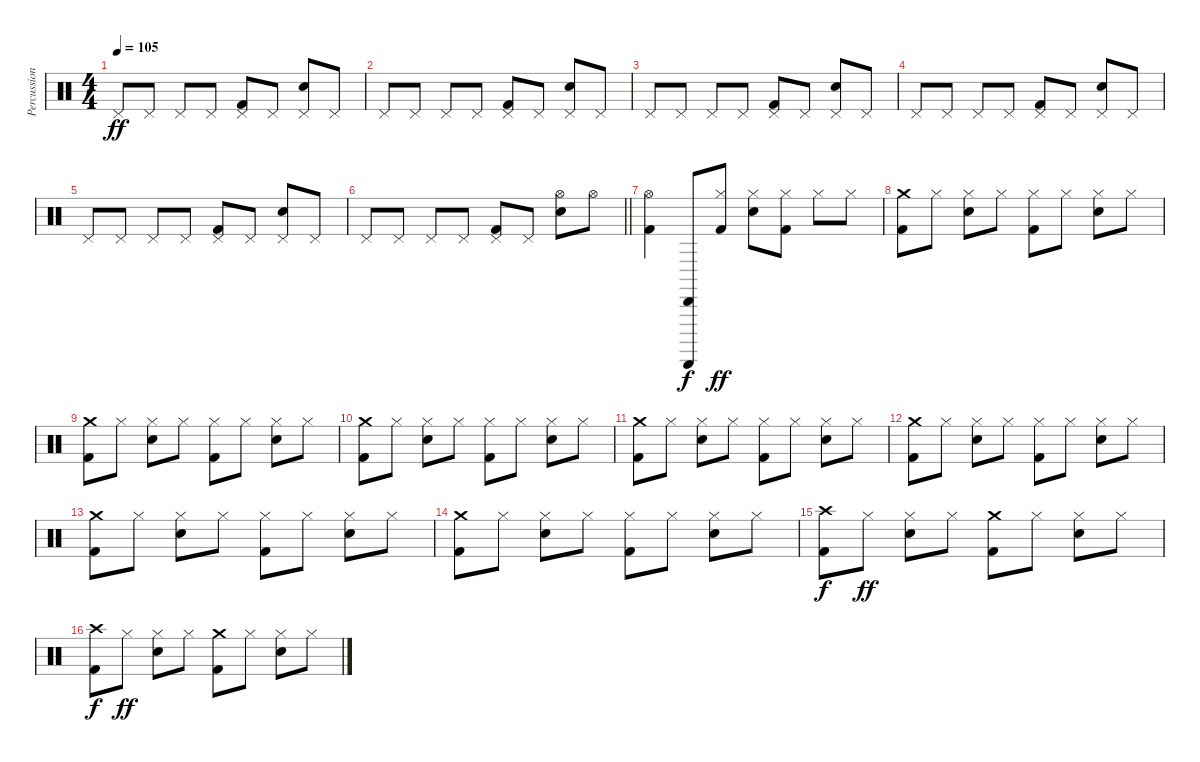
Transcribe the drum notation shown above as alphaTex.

\track ("Percussion" "Percussion") {instrument percussion}
\staff {score}
\articulation defaults
\ts (4 4)
\tempo 105
\clef neutral
\ks c "Pedal Hi-Hat (hit)".8{dy ff} "Pedal Hi-Hat (hit)".8 "Pedal Hi-Hat (hit)".8 "Pedal Hi-Hat (hit)".8
("Pedal Hi-Hat (hit)" "Kick (hit) 2").8 "Pedal Hi-Hat (hit)".8 ("Pedal Hi-Hat (hit)" "Electric Snare (hit)").8 "Pedal Hi-Hat (hit)".8 |
"Pedal Hi-Hat (hit)".8 "Pedal Hi-Hat (hit)".8 "Pedal Hi-Hat (hit)".8 "Pedal Hi-Hat (hit)".8 ("Pedal Hi-Hat (hit)" "Kick (hit) 2").8 "Pedal Hi-Hat (hit)".8 ("Pedal Hi-Hat (hit)" "Electric Snare (hit)").8 "Pedal Hi-Hat (hit)".8 |
"Pedal Hi-Hat (hit)".8 "Pedal Hi-Hat (hit)".8 "Pedal Hi-Hat (hit)".8 "Pedal Hi-Hat (hit)".8 ("Pedal Hi-Hat (hit)" "Kick (hit) 2").8 "Pedal Hi-Hat (hit)".8 ("Pedal Hi-Hat (hit)" "Electric Snare (hit)").8 "Pedal Hi-Hat (hit)".8 |
"Pedal Hi-Hat (hit)".8 "Pedal Hi-Hat (hit)".8 "Pedal Hi-Hat (hit)".8 "Pedal Hi-Hat (hit)".8 ("Pedal Hi-Hat (hit)" "Kick (hit) 2").8 "Pedal Hi-Hat (hit)".8 ("Pedal Hi-Hat (hit)" "Electric Snare (hit)").8 "Pedal Hi-Hat (hit)".8 |
"Pedal Hi-Hat (hit)".8 "Pedal Hi-Hat (hit)".8 "Pedal Hi-Hat (hit)".8 "Pedal Hi-Hat (hit)".8 ("Pedal Hi-Hat (hit)" "Kick (hit) 2").8 "Pedal Hi-Hat (hit)".8 ("Pedal Hi-Hat (hit)" "Electric Snare (hit)").8 "Pedal Hi-Hat (hit)".8 |
\barLineRight lightlight "Pedal Hi-Hat (hit)".8 "Pedal Hi-Hat (hit)".8 "Pedal Hi-Hat (hit)".8 "Pedal Hi-Hat (hit)".8
("Pedal Hi-Hat (hit)" "Kick (hit) 2").8 "Pedal Hi-Hat (hit)".8 ("Hi-Hat (open)" "Electric Snare (hit)").8 "Hi-Hat (open)".8 |
("Hi-Hat (open)" "Kick (hit) 2").4 ("Cabasa (hit)" "Guiro (scrap-return)").8{dy f} ("Hi-Hat (closed)" "Kick (hit) 2").8{dy ff} ("Hi-Hat (closed)" "Electric Snare (hit)").8 ("Hi-Hat (closed)" "Kick (hit) 2").8 "Hi-Hat (closed)".8 "Hi-Hat (closed)".8 |
("Crash medium (hit)" "Kick (hit) 2").8 "Hi-Hat (closed)".8 ("Hi-Hat (closed)" "Electric Snare (hit)").8 "Hi-Hat (closed)".8 ("Hi-Hat (closed)" "Kick (hit) 2").8 "Hi-Hat (closed)".8 ("Hi-Hat (closed)" "Electric Snare (hit)").8 "Hi-Hat (closed)".8 |
("Crash medium (hit)" "Kick (hit) 2").8 "Hi-Hat (closed)".8 ("Hi-Hat (closed)" "Electric Snare (hit)").8 "Hi-Hat (closed)".8 ("Hi-Hat (closed)" "Kick (hit) 2").8 "Hi-Hat (closed)".8 ("Hi-Hat (closed)" "Electric Snare (hit)").8 "Hi-Hat (closed)".8 |
("Crash medium (hit)" "Kick (hit) 2").8 "Hi-Hat (closed)".8 ("Hi-Hat (closed)" "Electric Snare (hit)").8 "Hi-Hat (closed)".8 ("Hi-Hat (closed)" "Kick (hit) 2").8 "Hi-Hat (closed)".8 ("Hi-Hat (closed)" "Electric Snare (hit)").8 "Hi-Hat (closed)".8 |
("Crash medium (hit)" "Kick (hit) 2").8 "Hi-Hat (closed)".8 ("Hi-Hat (closed)" "Electric Snare (hit)").8 "Hi-Hat (closed)".8 ("Hi-Hat (closed)" "Kick (hit) 2").8 "Hi-Hat (closed)".8 ("Hi-Hat (closed)" "Electric Snare (hit)").8 "Hi-Hat (closed)".8 |
("Crash medium (hit)" "Kick (hit) 2").8 "Hi-Hat (closed)".8 ("Hi-Hat (closed)" "Electric Snare (hit)").8 "Hi-Hat (closed)".8 ("Hi-Hat (closed)" "Kick (hit) 2").8 "Hi-Hat (closed)".8 ("Hi-Hat (closed)" "Electric Snare (hit)").8 "Hi-Hat (closed)".8 |
("Crash medium (hit)" "Kick (hit) 2").8 "Hi-Hat (closed)".8 ("Hi-Hat (closed)" "Electric Snare (hit)").8 "Hi-Hat (closed)".8 ("Hi-Hat (closed)" "Kick (hit) 2").8 "Hi-Hat (closed)".8 ("Hi-Hat (closed)" "Electric Snare (hit)").8 "Hi-Hat (closed)".8 |
("Crash medium (hit)" "Kick (hit) 2").8 "Hi-Hat (closed)".8 ("Hi-Hat (closed)" "Electric Snare (hit)").8 "Hi-Hat (closed)".8 ("Hi-Hat (closed)" "Kick (hit) 2").8 "Hi-Hat (closed)".8 ("Hi-Hat (closed)" "Electric Snare (hit)").8 "Hi-Hat (closed)".8 |
("Crash high (hit)" "Kick (hit) 2").8{dy f} "Hi-Hat (closed)".8{dy ff} ("Hi-Hat (closed)" "Electric Snare (hit)").8 "Hi-Hat (closed)".8 ("Crash medium (hit)" "Kick (hit) 2").8 "Hi-Hat (closed)".8 ("Hi-Hat (closed)" "Electric Snare (hit)").8 "Hi-Hat (closed)".8 |
("Crash high (hit)" "Kick (hit) 2").8{dy f} "Hi-Hat (closed)".8{dy ff} ("Hi-Hat (closed)" "Electric Snare (hit)").8 "Hi-Hat (closed)".8 ("Crash medium (hit)" "Kick (hit) 2").8 "Hi-Hat (closed)".8 ("Hi-Hat (closed)" "Electric Snare (hit)").8 "Hi-Hat (closed)".8
